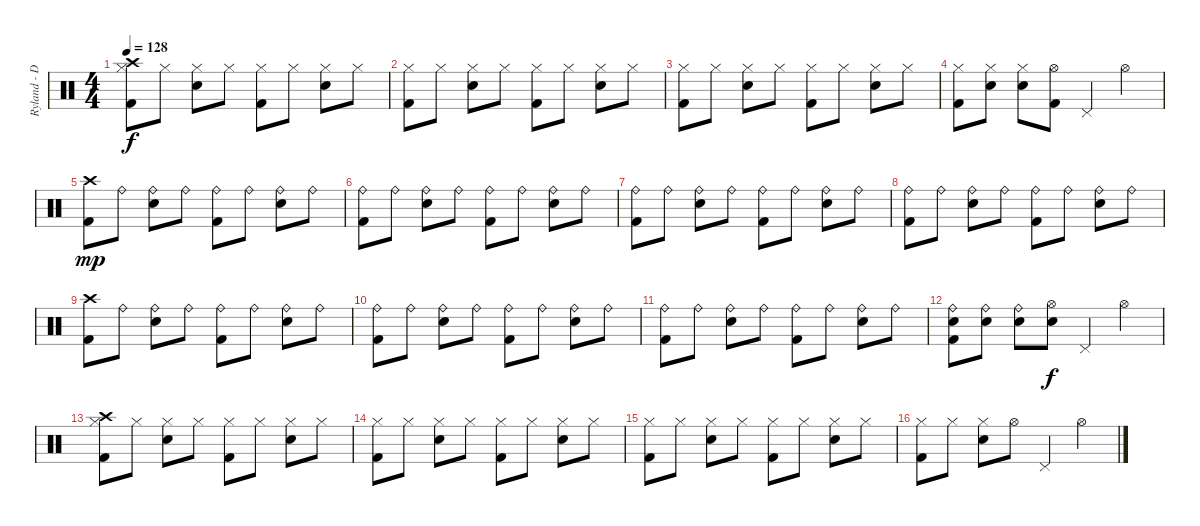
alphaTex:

\track ("Ryland - Drums" "Ryland - D") {instrument percussion}
\staff {score}
\articulation defaults
\ts (4 4)
\tempo 128
\clef neutral
\ks c
("Hi-Hat (closed)" "Crash high (hit)" "Kick (hit) 2").8{dy f} "Hi-Hat (closed)".8 ("Hi-Hat (closed)" "Electric Snare (hit)").8 "Hi-Hat (closed)".8 ("Hi-Hat (closed)" "Kick (hit) 2").8 "Hi-Hat (closed)".8 ("Hi-Hat (closed)" "Electric Snare (hit)").8 "Hi-Hat (closed)".8 |
("Hi-Hat (closed)" "Kick (hit) 2").8 "Hi-Hat (closed)".8 ("Hi-Hat (closed)" "Electric Snare (hit)").8 "Hi-Hat (closed)".8 ("Hi-Hat (closed)" "Kick (hit) 2").8 "Hi-Hat (closed)".8 ("Hi-Hat (closed)" "Electric Snare (hit)").8 "Hi-Hat (closed)".8 |
("Hi-Hat (closed)" "Kick (hit) 2").8 "Hi-Hat (closed)".8 ("Hi-Hat (closed)" "Electric Snare (hit)").8 "Hi-Hat (closed)".8 ("Hi-Hat (closed)" "Kick (hit) 2").8 "Hi-Hat (closed)".8 ("Hi-Hat (closed)" "Electric Snare (hit)").8 "Hi-Hat (closed)".8 |
("Hi-Hat (closed)" "Kick (hit) 2").8 ("Hi-Hat (closed)" "Electric Snare (hit)").8 ("Hi-Hat (closed)" "Electric Snare (hit)").8 ("Hi-Hat (open)" "Kick (hit) 2").8 "Pedal Hi-Hat (hit)".4 "Hi-Hat (open)".4 |
("Crash high (hit)" "Kick (hit) 2").8{dy mp} "Ride (bell)".8 ("Ride (bell)" "Electric Snare (hit)").8 "Ride (bell)".8 ("Ride (bell)" "Kick (hit) 2").8 "Ride (bell)".8 ("Ride (bell)" "Electric Snare (hit)").8 "Ride (bell)".8 |
("Ride (bell)" "Kick (hit) 2").8 "Ride (bell)".8 ("Ride (bell)" "Electric Snare (hit)").8 "Ride (bell)".8 ("Ride (bell)" "Kick (hit) 2").8 "Ride (bell)".8 ("Ride (bell)" "Electric Snare (hit)").8 "Ride (bell)".8 |
("Ride (bell)" "Kick (hit) 2").8 "Ride (bell)".8 ("Ride (bell)" "Electric Snare (hit)").8 "Ride (bell)".8 ("Ride (bell)" "Kick (hit) 2").8 "Ride (bell)".8 ("Ride (bell)" "Electric Snare (hit)").8 "Ride (bell)".8 |
("Ride (bell)" "Kick (hit) 2").8 "Ride (bell)".8 ("Ride (bell)" "Electric Snare (hit)").8 "Ride (bell)".8 ("Ride (bell)" "Kick (hit) 2").8 "Ride (bell)".8 ("Ride (bell)" "Electric Snare (hit)").8 "Ride (bell)".8 |
("Crash high (hit)" "Kick (hit) 2").8 "Ride (bell)".8 ("Ride (bell)" "Electric Snare (hit)").8 "Ride (bell)".8 ("Ride (bell)" "Kick (hit) 2").8 "Ride (bell)".8 ("Ride (bell)" "Electric Snare (hit)").8 "Ride (bell)".8 |
("Ride (bell)" "Kick (hit) 2").8 "Ride (bell)".8 ("Ride (bell)" "Electric Snare (hit)").8 "Ride (bell)".8 ("Ride (bell)" "Kick (hit) 2").8 "Ride (bell)".8 ("Ride (bell)" "Electric Snare (hit)").8 "Ride (bell)".8 |
("Ride (bell)" "Kick (hit) 2").8 "Ride (bell)".8 ("Ride (bell)" "Electric Snare (hit)").8 "Ride (bell)".8 ("Ride (bell)" "Kick (hit) 2").8 "Ride (bell)".8 ("Ride (bell)" "Electric Snare (hit)").8 "Ride (bell)".8 |
("Ride (bell)" "Electric Snare (hit)" "Kick (hit) 2").8 ("Ride (bell)" "Electric Snare (hit)").8 ("Ride (bell)" "Electric Snare (hit)").8 ("Hi-Hat (open)" "Electric Snare (hit)").8{dy f} "Pedal Hi-Hat (hit)".4 "Hi-Hat (open)".4 |
("Hi-Hat (closed)" "Crash high (hit)" "Kick (hit) 2").8 "Hi-Hat (closed)".8 ("Hi-Hat (closed)" "Electric Snare (hit)").8 "Hi-Hat (closed)".8 ("Hi-Hat (closed)" "Kick (hit) 2").8 "Hi-Hat (closed)".8 ("Hi-Hat (closed)" "Electric Snare (hit)").8 "Hi-Hat (closed)".8 |
("Hi-Hat (closed)" "Kick (hit) 2").8 "Hi-Hat (closed)".8 ("Hi-Hat (closed)" "Electric Snare (hit)").8 "Hi-Hat (closed)".8 ("Hi-Hat (closed)" "Kick (hit) 2").8 "Hi-Hat (closed)".8 ("Hi-Hat (closed)" "Electric Snare (hit)").8 "Hi-Hat (closed)".8 |
("Hi-Hat (closed)" "Kick (hit) 2").8 "Hi-Hat (closed)".8 ("Hi-Hat (closed)" "Electric Snare (hit)").8 "Hi-Hat (closed)".8 ("Hi-Hat (closed)" "Kick (hit) 2").8 "Hi-Hat (closed)".8 ("Hi-Hat (closed)" "Electric Snare (hit)").8 "Hi-Hat (closed)".8 |
("Hi-Hat (closed)" "Kick (hit) 2").8 "Hi-Hat (closed)".8 ("Hi-Hat (closed)" "Electric Snare (hit)").8 "Hi-Hat (open)".8 "Pedal Hi-Hat (hit)".4 "Hi-Hat (open)".4
